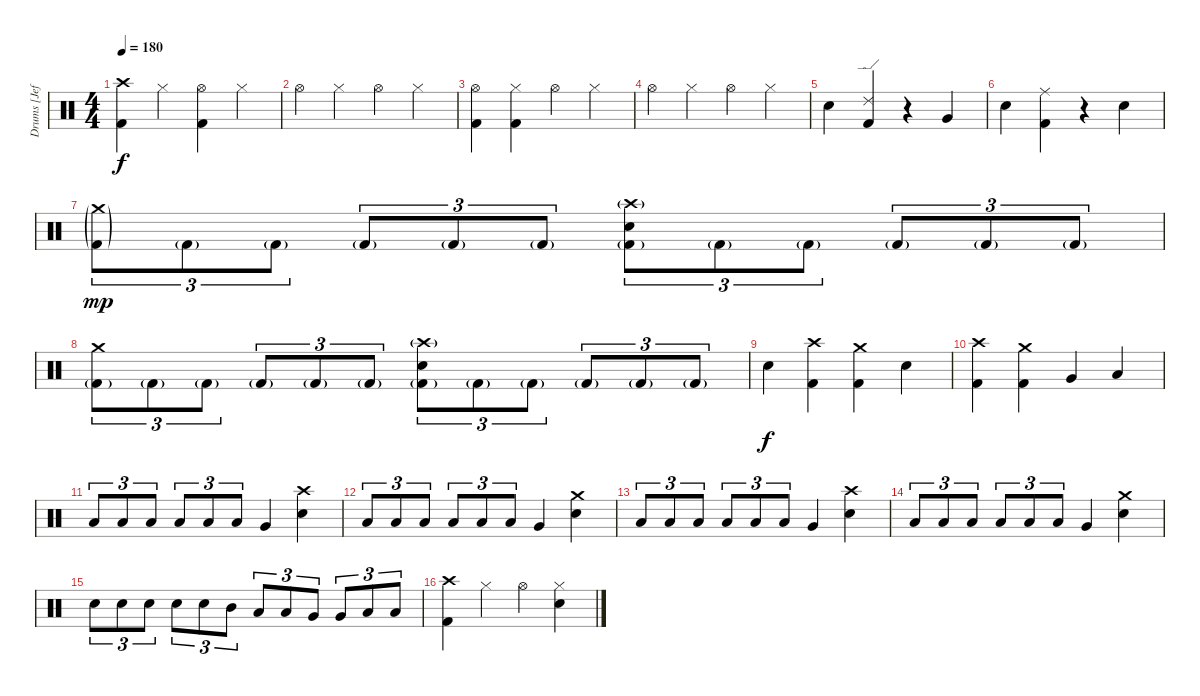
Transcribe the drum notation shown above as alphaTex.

\track ("Drums [Jeff]" "Drums [Jef") {instrument percussion}
\staff {score}
\articulation defaults
\ts (4 4)
\tempo 180
\clef neutral
\ks c
("Crash high (hit)" "Kick (hit) 2").4{dy f} "Hi-Hat (closed)".4 ("Hi-Hat (open)" "Kick (hit) 2").4 "Hi-Hat (closed)".4 |
"Hi-Hat (open)".4 "Hi-Hat (closed)".4 "Hi-Hat (open)".4 "Hi-Hat (closed)".4 |
("Hi-Hat (open)" "Kick (hit) 2").4 ("Hi-Hat (closed)" "Kick (hit) 2").4 "Hi-Hat (open)".4 "Hi-Hat (closed)".4 |
"Hi-Hat (open)".4 "Hi-Hat (closed)".4 "Hi-Hat (open)".4 "Hi-Hat (closed)".4 |
"Electric Snare (hit)".4 ("Ride (edge) 2" "Kick (hit) 2").4 r.4 "Very Low Tom (hit)".4 |
"Electric Snare (hit)".4 ("Ride (middle)" "Kick (hit) 2").4 r.4 "Electric Snare (hit)".4 |
("Crash medium (hit)"{g} "Kick (hit) 2"{g}).8{tu (3 2) dy mp} "Kick (hit) 2"{g}.8{tu (3 2)} "Kick (hit) 2"{g}.8{tu (3 2)} "Kick (hit) 2"{g}.8{tu (3 2)} "Kick (hit) 2"{g}.8{tu (3 2)} "Kick (hit) 2"{g}.8{tu (3 2)} ("Crash high (hit)"{g} "Electric Snare (hit)" "Kick (hit) 2"{g}).8{tu (3 2)} "Kick (hit) 2"{g}.8{tu (3 2)} "Kick (hit) 2"{g}.8{tu (3 2)} "Kick (hit) 2"{g}.8{tu (3 2)} "Kick (hit) 2"{g}.8{tu (3 2)} "Kick (hit) 2"{g}.8{tu (3 2)} |
("Crash medium (hit)" "Kick (hit) 2"{g}).8{tu (3 2)} "Kick (hit) 2"{g}.8{tu (3 2)} "Kick (hit) 2"{g}.8{tu (3 2)} "Kick (hit) 2"{g}.8{tu (3 2)} "Kick (hit) 2"{g}.8{tu (3 2)} "Kick (hit) 2"{g}.8{tu (3 2)} ("Crash high (hit)"{g} "Electric Snare (hit)" "Kick (hit) 2"{g}).8{tu (3 2)} "Kick (hit) 2"{g}.8{tu (3 2)} "Kick (hit) 2"{g}.8{tu (3 2)} "Kick (hit) 2"{g}.8{tu (3 2)} "Kick (hit) 2"{g}.8{tu (3 2)} "Kick (hit) 2"{g}.8{tu (3 2)} |
"Electric Snare (hit)".4{dy f} ("Crash high (hit)" "Kick (hit) 2").4 ("Crash medium (hit)" "Kick (hit) 2").4 "Electric Snare (hit)".4 |
("Crash high (hit)" "Kick (hit) 2").4 ("Crash medium (hit)" "Kick (hit) 2").4 "Very Low Tom (hit)".4 "Low Floor Tom (hit)".4 |
"Low Tom (hit)".8{tu (3 2) balance 16} "Low Tom (hit)".8{tu (3 2) balance 13} "Low Tom (hit)".8{tu (3 2) balance 10} "Low Tom (hit)".8{tu (3 2) balance 6} "Low Tom (hit)".8{tu (3 2) balance 3} "Low Tom (hit)".8{tu (3 2) balance 0} "Very Low Tom (hit)".4 ("Crash high (hit)" "Electric Snare (hit)").4{balance 8} |
"Low Tom (hit)".8{tu (3 2) balance 16} "Low Tom (hit)".8{tu (3 2) balance 13} "Low Tom (hit)".8{tu (3 2) balance 10} "Low Tom (hit)".8{tu (3 2) balance 6} "Low Tom (hit)".8{tu (3 2) balance 3} "Low Tom (hit)".8{tu (3 2) balance 0} "Very Low Tom (hit)".4 ("Crash medium (hit)" "Electric Snare (hit)").4{balance 8} |
"Low Tom (hit)".8{tu (3 2) balance 16} "Low Tom (hit)".8{tu (3 2) balance 13} "Low Tom (hit)".8{tu (3 2) balance 10} "Low Tom (hit)".8{tu (3 2) balance 6} "Low Tom (hit)".8{tu (3 2) balance 3} "Low Tom (hit)".8{tu (3 2) balance 0} "Very Low Tom (hit)".4 ("Crash high (hit)" "Electric Snare (hit)").4{balance 8} |
"Low Tom (hit)".8{tu (3 2) balance 16} "Low Tom (hit)".8{tu (3 2) balance 13} "Low Tom (hit)".8{tu (3 2) balance 10} "Low Tom (hit)".8{tu (3 2) balance 6} "Low Tom (hit)".8{tu (3 2) balance 3} "Low Tom (hit)".8{tu (3 2) balance 0} "Very Low Tom (hit)".4 ("Crash medium (hit)" "Electric Snare (hit)").4{balance 8} |
"Electric Snare (hit)".8{tu (3 2)} "Electric Snare (hit)".8{tu (3 2)} "Electric Snare (hit)".8{tu (3 2)} "Electric Snare (hit)".8{tu (3 2)} "Electric Snare (hit)".8{tu (3 2)} "Mid Tom (hit)".8{tu (3 2)} "Low Tom (hit)".8{tu (3 2)} "Low Tom (hit)".8{tu (3 2)} "Very Low Tom (hit)".8{tu (3 2)} "Very Low Tom (hit)".8{tu (3 2)} "Low Floor Tom (hit)".8{tu (3 2)} "Low Floor Tom (hit)".8{tu (3 2)} |
("Crash high (hit)" "Kick (hit) 2").4 "Hi-Hat (closed)".4 "Hi-Hat (open)".4 ("Hi-Hat (closed)" "Electric Snare (hit)").4
